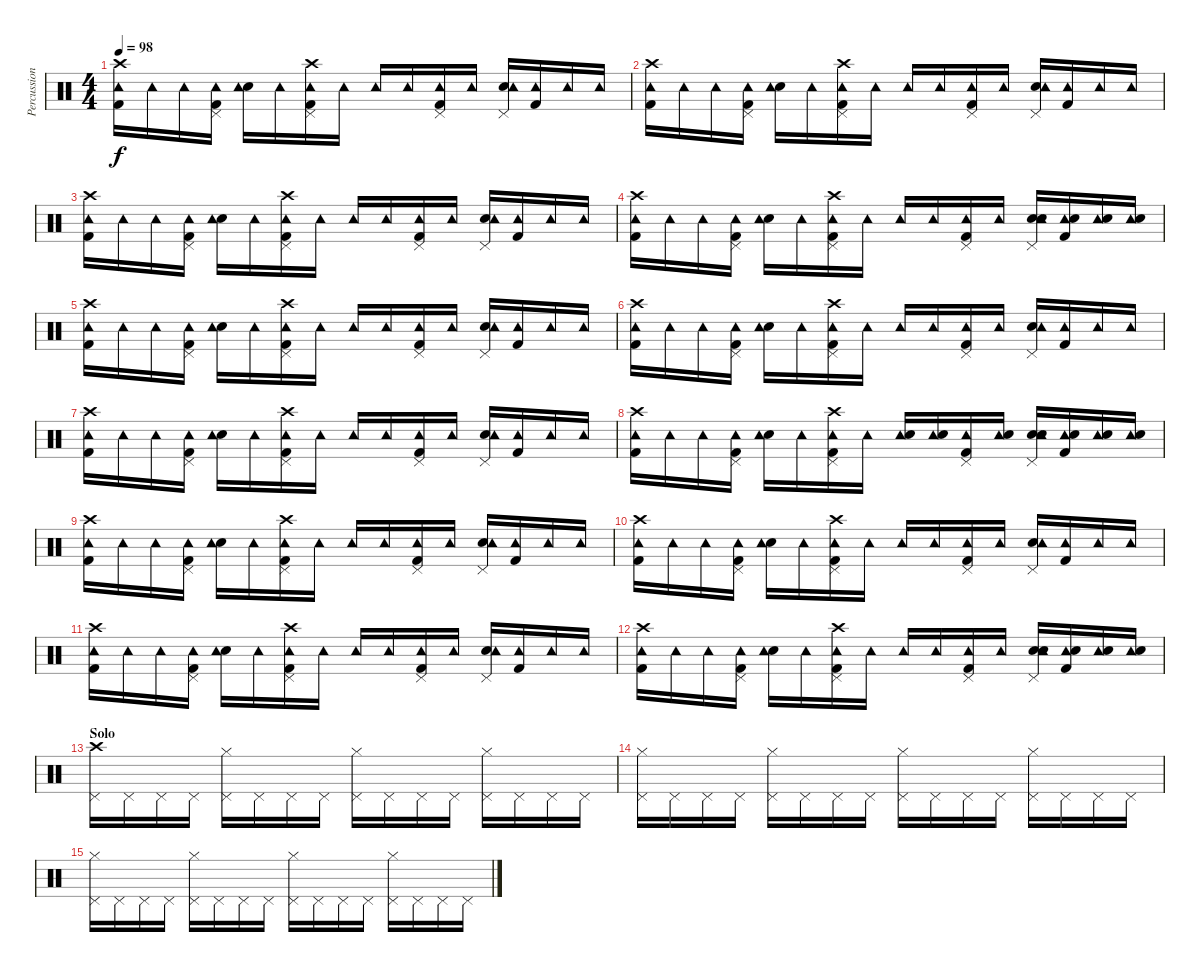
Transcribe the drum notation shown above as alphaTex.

\track ("Percussion" "Percussion") {instrument percussion}
\staff {score}
\articulation defaults
\ts (4 4)
\tempo 98
\clef neutral
\ks c
("Crash high (hit)" "Kick (hit) 2" "Tambourine (hit)").16{dy f} "Tambourine (hit)".16 "Tambourine (hit)".16 ("Pedal Hi-Hat (hit)" "Kick (hit) 2" "Tambourine (hit)").16 ("Snare (hit) 2" "Tambourine (hit)").16 "Tambourine (hit)".16 ("Crash high (hit)" "Kick (hit) 2" "Tambourine (hit)" "Pedal Hi-Hat (hit)").16 "Tambourine (hit)".16 "Tambourine (hit)".16 "Tambourine (hit)".16 ("Pedal Hi-Hat (hit)" "Kick (hit) 2" "Tambourine (hit)").16 "Tambourine (hit)".16 ("Pedal Hi-Hat (hit)" "Snare (hit) 2" "Tambourine (hit)").16 ("Kick (hit) 2" "Tambourine (hit)").16 "Tambourine (hit)".16 "Tambourine (hit)".16 |
("Crash high (hit)" "Kick (hit) 2" "Tambourine (hit)").16 "Tambourine (hit)".16 "Tambourine (hit)".16 ("Pedal Hi-Hat (hit)" "Kick (hit) 2" "Tambourine (hit)").16 ("Snare (hit) 2" "Tambourine (hit)").16 "Tambourine (hit)".16 ("Crash high (hit)" "Kick (hit) 2" "Tambourine (hit)" "Pedal Hi-Hat (hit)").16 "Tambourine (hit)".16 "Tambourine (hit)".16 "Tambourine (hit)".16 ("Pedal Hi-Hat (hit)" "Kick (hit) 2" "Tambourine (hit)").16 "Tambourine (hit)".16 ("Pedal Hi-Hat (hit)" "Snare (hit) 2" "Tambourine (hit)").16 ("Kick (hit) 2" "Tambourine (hit)").16 "Tambourine (hit)".16 "Tambourine (hit)".16 |
("Crash high (hit)" "Kick (hit) 2" "Tambourine (hit)").16 "Tambourine (hit)".16 "Tambourine (hit)".16 ("Pedal Hi-Hat (hit)" "Kick (hit) 2" "Tambourine (hit)").16 ("Snare (hit) 2" "Tambourine (hit)").16 "Tambourine (hit)".16 ("Crash high (hit)" "Kick (hit) 2" "Tambourine (hit)" "Pedal Hi-Hat (hit)").16 "Tambourine (hit)".16 "Tambourine (hit)".16 "Tambourine (hit)".16 ("Pedal Hi-Hat (hit)" "Kick (hit) 2" "Tambourine (hit)").16 "Tambourine (hit)".16 ("Pedal Hi-Hat (hit)" "Snare (hit) 2" "Tambourine (hit)").16 ("Kick (hit) 2" "Tambourine (hit)").16 "Tambourine (hit)".16 "Tambourine (hit)".16 |
("Crash high (hit)" "Kick (hit) 2" "Tambourine (hit)").16 "Tambourine (hit)".16 "Tambourine (hit)".16 ("Pedal Hi-Hat (hit)" "Kick (hit) 2" "Tambourine (hit)").16 ("Snare (hit) 2" "Tambourine (hit)").16 "Tambourine (hit)".16 ("Crash high (hit)" "Kick (hit) 2" "Tambourine (hit)" "Pedal Hi-Hat (hit)").16 "Tambourine (hit)".16 "Tambourine (hit)".16 "Tambourine (hit)".16 ("Pedal Hi-Hat (hit)" "Kick (hit) 2" "Tambourine (hit)").16 "Tambourine (hit)".16 ("Pedal Hi-Hat (hit)" "Snare (hit) 2" "Tambourine (hit)" "Snare (hit) 2").16 ("Kick (hit) 2" "Tambourine (hit)" "Snare (hit) 2").16 ("Tambourine (hit)" "Snare (hit) 2").16 ("Tambourine (hit)" "Snare (hit) 2").16 |
("Crash high (hit)" "Kick (hit) 2" "Tambourine (hit)").16 "Tambourine (hit)".16 "Tambourine (hit)".16 ("Pedal Hi-Hat (hit)" "Kick (hit) 2" "Tambourine (hit)").16 ("Snare (hit) 2" "Tambourine (hit)").16 "Tambourine (hit)".16 ("Crash high (hit)" "Kick (hit) 2" "Tambourine (hit)" "Pedal Hi-Hat (hit)").16 "Tambourine (hit)".16 "Tambourine (hit)".16 "Tambourine (hit)".16 ("Pedal Hi-Hat (hit)" "Kick (hit) 2" "Tambourine (hit)").16 "Tambourine (hit)".16 ("Pedal Hi-Hat (hit)" "Snare (hit) 2" "Tambourine (hit)").16 ("Kick (hit) 2" "Tambourine (hit)").16 "Tambourine (hit)".16 "Tambourine (hit)".16 |
("Crash high (hit)" "Kick (hit) 2" "Tambourine (hit)").16 "Tambourine (hit)".16 "Tambourine (hit)".16 ("Pedal Hi-Hat (hit)" "Kick (hit) 2" "Tambourine (hit)").16 ("Snare (hit) 2" "Tambourine (hit)").16 "Tambourine (hit)".16 ("Crash high (hit)" "Kick (hit) 2" "Tambourine (hit)" "Pedal Hi-Hat (hit)").16 "Tambourine (hit)".16 "Tambourine (hit)".16 "Tambourine (hit)".16 ("Pedal Hi-Hat (hit)" "Kick (hit) 2" "Tambourine (hit)").16 "Tambourine (hit)".16 ("Pedal Hi-Hat (hit)" "Snare (hit) 2" "Tambourine (hit)").16 ("Kick (hit) 2" "Tambourine (hit)").16 "Tambourine (hit)".16 "Tambourine (hit)".16 |
("Crash high (hit)" "Kick (hit) 2" "Tambourine (hit)").16 "Tambourine (hit)".16 "Tambourine (hit)".16 ("Pedal Hi-Hat (hit)" "Kick (hit) 2" "Tambourine (hit)").16 ("Snare (hit) 2" "Tambourine (hit)").16 "Tambourine (hit)".16 ("Crash high (hit)" "Kick (hit) 2" "Tambourine (hit)" "Pedal Hi-Hat (hit)").16 "Tambourine (hit)".16 "Tambourine (hit)".16 "Tambourine (hit)".16 ("Pedal Hi-Hat (hit)" "Kick (hit) 2" "Tambourine (hit)").16 "Tambourine (hit)".16 ("Pedal Hi-Hat (hit)" "Snare (hit) 2" "Tambourine (hit)").16 ("Kick (hit) 2" "Tambourine (hit)").16 "Tambourine (hit)".16 "Tambourine (hit)".16 |
("Crash high (hit)" "Kick (hit) 2" "Tambourine (hit)").16 "Tambourine (hit)".16 "Tambourine (hit)".16 ("Pedal Hi-Hat (hit)" "Kick (hit) 2" "Tambourine (hit)").16 ("Snare (hit) 2" "Tambourine (hit)").16 "Tambourine (hit)".16 ("Crash high (hit)" "Kick (hit) 2" "Tambourine (hit)" "Pedal Hi-Hat (hit)").16 "Tambourine (hit)".16 ("Tambourine (hit)" "Snare (hit) 2").16 ("Tambourine (hit)" "Snare (hit) 2").16 ("Pedal Hi-Hat (hit)" "Kick (hit) 2" "Tambourine (hit)").16 ("Tambourine (hit)" "Snare (hit) 2").16 ("Pedal Hi-Hat (hit)" "Snare (hit) 2" "Tambourine (hit)" "Snare (hit) 2").16 ("Kick (hit) 2" "Tambourine (hit)" "Snare (hit) 2").16 ("Tambourine (hit)" "Snare (hit) 2").16 ("Tambourine (hit)" "Snare (hit) 2").16 |
("Crash high (hit)" "Kick (hit) 2" "Tambourine (hit)").16 "Tambourine (hit)".16 "Tambourine (hit)".16 ("Pedal Hi-Hat (hit)" "Kick (hit) 2" "Tambourine (hit)").16 ("Snare (hit) 2" "Tambourine (hit)").16 "Tambourine (hit)".16 ("Crash high (hit)" "Kick (hit) 2" "Tambourine (hit)" "Pedal Hi-Hat (hit)").16 "Tambourine (hit)".16 "Tambourine (hit)".16 "Tambourine (hit)".16 ("Pedal Hi-Hat (hit)" "Kick (hit) 2" "Tambourine (hit)").16 "Tambourine (hit)".16 ("Pedal Hi-Hat (hit)" "Snare (hit) 2" "Tambourine (hit)").16 ("Kick (hit) 2" "Tambourine (hit)").16 "Tambourine (hit)".16 "Tambourine (hit)".16 |
("Crash high (hit)" "Kick (hit) 2" "Tambourine (hit)").16 "Tambourine (hit)".16 "Tambourine (hit)".16 ("Pedal Hi-Hat (hit)" "Kick (hit) 2" "Tambourine (hit)").16 ("Snare (hit) 2" "Tambourine (hit)").16 "Tambourine (hit)".16 ("Crash high (hit)" "Kick (hit) 2" "Tambourine (hit)" "Pedal Hi-Hat (hit)").16 "Tambourine (hit)".16 "Tambourine (hit)".16 "Tambourine (hit)".16 ("Pedal Hi-Hat (hit)" "Kick (hit) 2" "Tambourine (hit)").16 "Tambourine (hit)".16 ("Pedal Hi-Hat (hit)" "Snare (hit) 2" "Tambourine (hit)").16 ("Kick (hit) 2" "Tambourine (hit)").16 "Tambourine (hit)".16 "Tambourine (hit)".16 |
("Crash high (hit)" "Kick (hit) 2" "Tambourine (hit)").16 "Tambourine (hit)".16 "Tambourine (hit)".16 ("Pedal Hi-Hat (hit)" "Kick (hit) 2" "Tambourine (hit)").16 ("Snare (hit) 2" "Tambourine (hit)").16 "Tambourine (hit)".16 ("Crash high (hit)" "Kick (hit) 2" "Tambourine (hit)" "Pedal Hi-Hat (hit)").16 "Tambourine (hit)".16 "Tambourine (hit)".16 "Tambourine (hit)".16 ("Pedal Hi-Hat (hit)" "Kick (hit) 2" "Tambourine (hit)").16 "Tambourine (hit)".16 ("Pedal Hi-Hat (hit)" "Snare (hit) 2" "Tambourine (hit)").16 ("Kick (hit) 2" "Tambourine (hit)").16 "Tambourine (hit)".16 "Tambourine (hit)".16 |
("Crash high (hit)" "Kick (hit) 2" "Tambourine (hit)").16 "Tambourine (hit)".16 "Tambourine (hit)".16 ("Pedal Hi-Hat (hit)" "Kick (hit) 2" "Tambourine (hit)").16 ("Snare (hit) 2" "Tambourine (hit)").16 "Tambourine (hit)".16 ("Crash high (hit)" "Kick (hit) 2" "Tambourine (hit)" "Pedal Hi-Hat (hit)").16 "Tambourine (hit)".16 "Tambourine (hit)".16 "Tambourine (hit)".16 ("Pedal Hi-Hat (hit)" "Kick (hit) 2" "Tambourine (hit)").16 "Tambourine (hit)".16 ("Pedal Hi-Hat (hit)" "Snare (hit) 2" "Tambourine (hit)" "Snare (hit) 2").16 ("Kick (hit) 2" "Tambourine (hit)" "Snare (hit) 2").16 ("Tambourine (hit)" "Snare (hit) 2").16 ("Tambourine (hit)" "Snare (hit) 2").16 |
\section ("" "Solo")
("Pedal Hi-Hat (hit)" "Crash high (hit)").16 "Pedal Hi-Hat (hit)".16 "Pedal Hi-Hat (hit)".16 "Pedal Hi-Hat (hit)".16 ("Pedal Hi-Hat (hit)" "Hi-Hat (closed)").16 "Pedal Hi-Hat (hit)".16 "Pedal Hi-Hat (hit)".16 "Pedal Hi-Hat (hit)".16 ("Pedal Hi-Hat (hit)" "Hi-Hat (closed)").16 "Pedal Hi-Hat (hit)".16 "Pedal Hi-Hat (hit)".16 "Pedal Hi-Hat (hit)".16 ("Pedal Hi-Hat (hit)" "Hi-Hat (closed)").16 "Pedal Hi-Hat (hit)".16 "Pedal Hi-Hat (hit)".16 "Pedal Hi-Hat (hit)".16 |
("Pedal Hi-Hat (hit)" "Hi-Hat (closed)").16{volume 0} "Pedal Hi-Hat (hit)".16 "Pedal Hi-Hat (hit)".16 "Pedal Hi-Hat (hit)".16 ("Pedal Hi-Hat (hit)" "Hi-Hat (closed)").16 "Pedal Hi-Hat (hit)".16 "Pedal Hi-Hat (hit)".16 "Pedal Hi-Hat (hit)".16 ("Pedal Hi-Hat (hit)" "Hi-Hat (closed)").16 "Pedal Hi-Hat (hit)".16 "Pedal Hi-Hat (hit)".16 "Pedal Hi-Hat (hit)".16 ("Pedal Hi-Hat (hit)" "Hi-Hat (closed)").16 "Pedal Hi-Hat (hit)".16 "Pedal Hi-Hat (hit)".16 "Pedal Hi-Hat (hit)".16 |
("Pedal Hi-Hat (hit)" "Hi-Hat (closed)").16 "Pedal Hi-Hat (hit)".16 "Pedal Hi-Hat (hit)".16 "Pedal Hi-Hat (hit)".16 ("Pedal Hi-Hat (hit)" "Hi-Hat (closed)").16 "Pedal Hi-Hat (hit)".16 "Pedal Hi-Hat (hit)".16 "Pedal Hi-Hat (hit)".16 ("Pedal Hi-Hat (hit)" "Hi-Hat (closed)").16 "Pedal Hi-Hat (hit)".16 "Pedal Hi-Hat (hit)".16 "Pedal Hi-Hat (hit)".16 ("Pedal Hi-Hat (hit)" "Hi-Hat (closed)").16 "Pedal Hi-Hat (hit)".16 "Pedal Hi-Hat (hit)".16 "Pedal Hi-Hat (hit)".16
